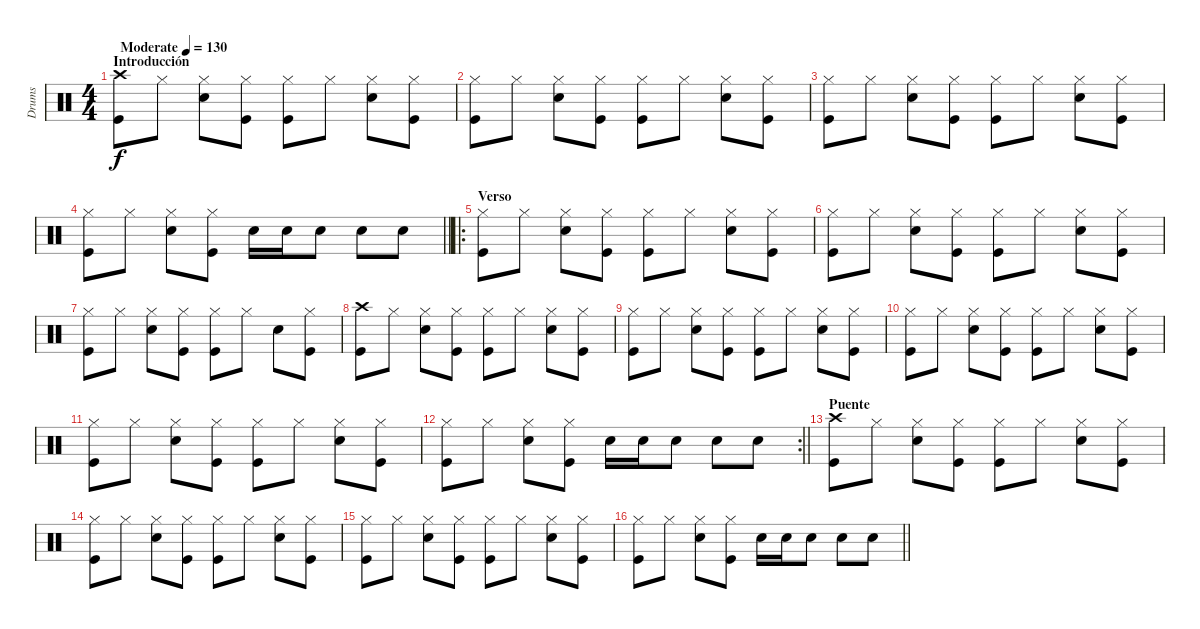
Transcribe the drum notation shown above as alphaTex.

\track ("Drums" "Drums") {instrument percussion}
\staff {score}
\articulation defaults
\ts (4 4)
\section ("" "Introducción")
\tempo (130 "Moderate")
\clef neutral
\ks c
("Kick (hit)" "Crash high (hit)").8{dy f} "Hi-Hat (closed)".8 ("Snare (hit) 2" "Hi-Hat (closed)").8 ("Kick (hit)" "Hi-Hat (closed)").8 ("Kick (hit)" "Hi-Hat (closed)").8 "Hi-Hat (closed)".8 ("Snare (hit) 2" "Hi-Hat (closed)").8 ("Kick (hit)" "Hi-Hat (closed)").8 |
("Kick (hit)" "Hi-Hat (closed)").8 "Hi-Hat (closed)".8 ("Snare (hit) 2" "Hi-Hat (closed)").8 ("Kick (hit)" "Hi-Hat (closed)").8 ("Kick (hit)" "Hi-Hat (closed)").8 "Hi-Hat (closed)".8 ("Snare (hit) 2" "Hi-Hat (closed)").8 ("Kick (hit)" "Hi-Hat (closed)").8 |
("Kick (hit)" "Hi-Hat (closed)").8 "Hi-Hat (closed)".8 ("Snare (hit) 2" "Hi-Hat (closed)").8 ("Kick (hit)" "Hi-Hat (closed)").8 ("Kick (hit)" "Hi-Hat (closed)").8 "Hi-Hat (closed)".8 ("Snare (hit) 2" "Hi-Hat (closed)").8 ("Kick (hit)" "Hi-Hat (closed)").8 |
\barLineRight lightlight
("Kick (hit)" "Hi-Hat (closed)").8 "Hi-Hat (closed)".8 ("Snare (hit) 2" "Hi-Hat (closed)").8 ("Kick (hit)" "Hi-Hat (closed)").8 "Snare (hit) 2".16 "Snare (hit) 2".16 "Snare (hit) 2".8 "Snare (hit) 2".8 "Snare (hit) 2".8 |
\ro
\section ("" "Verso")
("Kick (hit)" "Hi-Hat (closed)").8 "Hi-Hat (closed)".8 ("Snare (hit) 2" "Hi-Hat (closed)").8 ("Kick (hit)" "Hi-Hat (closed)").8 ("Kick (hit)" "Hi-Hat (closed)").8 "Hi-Hat (closed)".8 ("Snare (hit) 2" "Hi-Hat (closed)").8 ("Kick (hit)" "Hi-Hat (closed)").8 |
("Kick (hit)" "Hi-Hat (closed)").8 "Hi-Hat (closed)".8 ("Snare (hit) 2" "Hi-Hat (closed)").8 ("Kick (hit)" "Hi-Hat (closed)").8 ("Kick (hit)" "Hi-Hat (closed)").8 "Hi-Hat (closed)".8 ("Snare (hit) 2" "Hi-Hat (closed)").8 ("Kick (hit)" "Hi-Hat (closed)").8 |
("Kick (hit)" "Hi-Hat (closed)").8 "Hi-Hat (closed)".8 ("Snare (hit) 2" "Hi-Hat (closed)").8 ("Kick (hit)" "Hi-Hat (closed)").8 ("Kick (hit)" "Hi-Hat (closed)").8 "Hi-Hat (closed)".8 "Snare (hit) 2".8 ("Kick (hit)" "Hi-Hat (closed)").8 |
("Kick (hit)" "Crash high (hit)").8 "Hi-Hat (closed)".8 ("Snare (hit) 2" "Hi-Hat (closed)").8 ("Kick (hit)" "Hi-Hat (closed)").8 ("Kick (hit)" "Hi-Hat (closed)").8 "Hi-Hat (closed)".8 ("Snare (hit) 2" "Hi-Hat (closed)").8 ("Kick (hit)" "Hi-Hat (closed)").8 |
("Kick (hit)" "Hi-Hat (closed)").8 "Hi-Hat (closed)".8 ("Snare (hit) 2" "Hi-Hat (closed)").8 ("Kick (hit)" "Hi-Hat (closed)").8 ("Kick (hit)" "Hi-Hat (closed)").8 "Hi-Hat (closed)".8 ("Snare (hit) 2" "Hi-Hat (closed)").8 ("Kick (hit)" "Hi-Hat (closed)").8 |
("Kick (hit)" "Hi-Hat (closed)").8 "Hi-Hat (closed)".8 ("Snare (hit) 2" "Hi-Hat (closed)").8 ("Kick (hit)" "Hi-Hat (closed)").8 ("Kick (hit)" "Hi-Hat (closed)").8 "Hi-Hat (closed)".8 ("Snare (hit) 2" "Hi-Hat (closed)").8 ("Kick (hit)" "Hi-Hat (closed)").8 |
("Kick (hit)" "Hi-Hat (closed)").8 "Hi-Hat (closed)".8 ("Snare (hit) 2" "Hi-Hat (closed)").8 ("Kick (hit)" "Hi-Hat (closed)").8 ("Kick (hit)" "Hi-Hat (closed)").8 "Hi-Hat (closed)".8 ("Snare (hit) 2" "Hi-Hat (closed)").8 ("Kick (hit)" "Hi-Hat (closed)").8 |
\rc 2
\barLineRight lightlight
("Kick (hit)" "Hi-Hat (closed)").8 "Hi-Hat (closed)".8 ("Snare (hit) 2" "Hi-Hat (closed)").8 ("Kick (hit)" "Hi-Hat (closed)").8 "Snare (hit) 2".16 "Snare (hit) 2".16 "Snare (hit) 2".8 "Snare (hit) 2".8 "Snare (hit) 2".8 |
\section ("" "Puente")
("Kick (hit)" "Crash high (hit)").8 "Hi-Hat (closed)".8 ("Snare (hit) 2" "Hi-Hat (closed)").8 ("Kick (hit)" "Hi-Hat (closed)").8 ("Kick (hit)" "Hi-Hat (closed)").8 "Hi-Hat (closed)".8 ("Snare (hit) 2" "Hi-Hat (closed)").8 ("Kick (hit)" "Hi-Hat (closed)").8 |
("Kick (hit)" "Hi-Hat (closed)").8 "Hi-Hat (closed)".8 ("Snare (hit) 2" "Hi-Hat (closed)").8 ("Kick (hit)" "Hi-Hat (closed)").8 ("Kick (hit)" "Hi-Hat (closed)").8 "Hi-Hat (closed)".8 ("Snare (hit) 2" "Hi-Hat (closed)").8 ("Kick (hit)" "Hi-Hat (closed)").8 |
("Kick (hit)" "Hi-Hat (closed)").8 "Hi-Hat (closed)".8 ("Snare (hit) 2" "Hi-Hat (closed)").8 ("Kick (hit)" "Hi-Hat (closed)").8 ("Kick (hit)" "Hi-Hat (closed)").8 "Hi-Hat (closed)".8 ("Snare (hit) 2" "Hi-Hat (closed)").8 ("Kick (hit)" "Hi-Hat (closed)").8 |
\barLineRight lightlight
("Kick (hit)" "Hi-Hat (closed)").8 "Hi-Hat (closed)".8 ("Snare (hit) 2" "Hi-Hat (closed)").8 ("Kick (hit)" "Hi-Hat (closed)").8 "Snare (hit) 2".16 "Snare (hit) 2".16 "Snare (hit) 2".8 "Snare (hit) 2".8 "Snare (hit) 2".8
